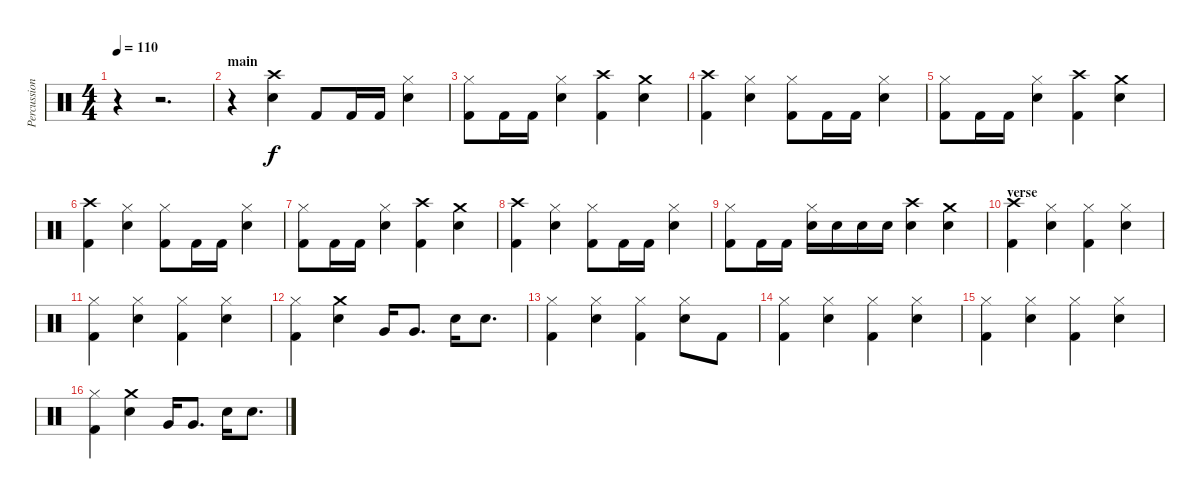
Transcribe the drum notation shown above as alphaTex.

\track ("Percussion" "Percussion") {instrument percussion}
\staff {score}
\articulation defaults
\ts (4 4)
\tempo 110
\clef neutral
\ks c
r.4{dy f} r.2{d} |
\section ("" "main")
r.4 ("Crash high (hit)" "Snare (hit) 2").4 "Kick (hit) 2".8 "Kick (hit) 2".16 "Kick (hit) 2".16 ("Hi-Hat (closed)" "Snare (hit) 2").4 |
("Hi-Hat (closed)" "Kick (hit) 2").8 "Kick (hit) 2".16 "Kick (hit) 2".16 ("Hi-Hat (closed)" "Snare (hit) 2").4 ("Crash high (hit)" "Kick (hit) 2").4 ("Crash medium (hit)" "Snare (hit) 2").4 |
("Crash high (hit)" "Kick (hit) 2").4 ("Hi-Hat (closed)" "Snare (hit) 2").4 ("Hi-Hat (closed)" "Kick (hit) 2").8 "Kick (hit) 2".16 "Kick (hit) 2".16 ("Hi-Hat (closed)" "Snare (hit) 2").4 |
("Hi-Hat (closed)" "Kick (hit) 2").8 "Kick (hit) 2".16 "Kick (hit) 2".16 ("Hi-Hat (closed)" "Snare (hit) 2").4 ("Crash high (hit)" "Kick (hit) 2").4 ("Crash medium (hit)" "Snare (hit) 2").4 |
("Crash high (hit)" "Kick (hit) 2").4 ("Hi-Hat (closed)" "Snare (hit) 2").4 ("Hi-Hat (closed)" "Kick (hit) 2").8 "Kick (hit) 2".16 "Kick (hit) 2".16 ("Hi-Hat (closed)" "Snare (hit) 2").4 |
("Hi-Hat (closed)" "Kick (hit) 2").8 "Kick (hit) 2".16 "Kick (hit) 2".16 ("Hi-Hat (closed)" "Snare (hit) 2").4 ("Crash high (hit)" "Kick (hit) 2").4 ("Crash medium (hit)" "Snare (hit) 2").4 |
("Crash high (hit)" "Kick (hit) 2").4 ("Hi-Hat (closed)" "Snare (hit) 2").4 ("Hi-Hat (closed)" "Kick (hit) 2").8 "Kick (hit) 2".16 "Kick (hit) 2".16 ("Hi-Hat (closed)" "Snare (hit) 2").4 |
("Hi-Hat (closed)" "Kick (hit) 2").8 "Kick (hit) 2".16 "Kick (hit) 2".16 ("Hi-Hat (closed)" "Snare (hit) 2").16 "Snare (hit) 2".16 "Snare (hit) 2".16 "Snare (hit) 2".16 ("Crash high (hit)" "Snare (hit) 2").4 ("Crash medium (hit)" "Snare (hit) 2").4 |
\section ("" "verse")
("Crash high (hit)" "Kick (hit) 2").4 ("Hi-Hat (closed)" "Snare (hit) 2").4 ("Hi-Hat (closed)" "Kick (hit) 2").4 ("Hi-Hat (closed)" "Snare (hit) 2").4 |
("Hi-Hat (closed)" "Kick (hit) 2").4 ("Hi-Hat (closed)" "Snare (hit) 2").4 ("Hi-Hat (closed)" "Kick (hit) 2").4 ("Hi-Hat (closed)" "Snare (hit) 2").4 |
("Hi-Hat (closed)" "Kick (hit) 2").4 ("Crash medium (hit)" "Snare (hit) 2").4 "Very Low Tom (hit)".16 "Very Low Tom (hit)".8{d} "Snare (hit) 2".16 "Snare (hit) 2".8{d} |
("Hi-Hat (closed)" "Kick (hit) 2").4 ("Hi-Hat (closed)" "Snare (hit) 2").4 ("Hi-Hat (closed)" "Kick (hit) 2").4 ("Hi-Hat (closed)" "Snare (hit) 2").8 "Kick (hit) 2".8 |
("Hi-Hat (closed)" "Kick (hit) 2").4 ("Hi-Hat (closed)" "Snare (hit) 2").4 ("Hi-Hat (closed)" "Kick (hit) 2").4 ("Hi-Hat (closed)" "Snare (hit) 2").4 |
("Hi-Hat (closed)" "Kick (hit) 2").4 ("Hi-Hat (closed)" "Snare (hit) 2").4 ("Hi-Hat (closed)" "Kick (hit) 2").4 ("Hi-Hat (closed)" "Snare (hit) 2").4 |
("Hi-Hat (closed)" "Kick (hit) 2").4 ("Crash medium (hit)" "Snare (hit) 2").4 "Very Low Tom (hit)".16 "Very Low Tom (hit)".8{d} "Snare (hit) 2".16 "Snare (hit) 2".8{d}
